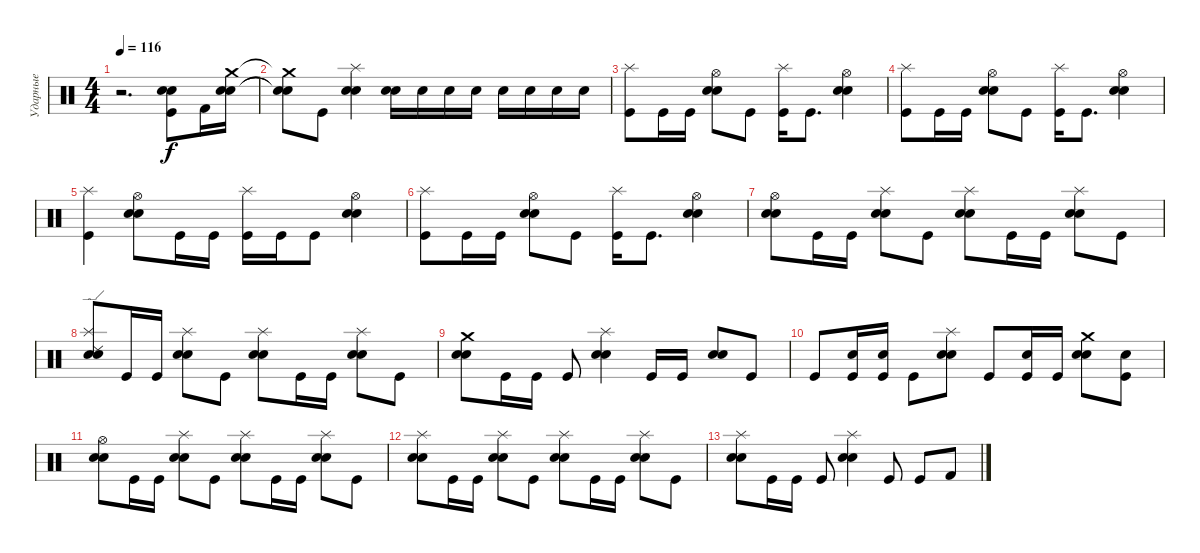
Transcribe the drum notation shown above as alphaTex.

\track ("Ударные" "Ударные") {instrument percussion}
\staff {score}
\articulation defaults
\ts (4 4)
\tempo 116
\clef neutral
\ks c
r.2{d dy mp} ("Electric Snare (hit)" "Snare (hit) 2" "Kick (hit)").8{dy f} "Kick (hit) 2".16 ("Crash medium (hit)" "Electric Snare (hit)" "Snare (hit) 2").16 |
("Crash medium (hit)"{t} "Electric Snare (hit)"{t} "Snare (hit) 2"{t}).8 "Kick (hit)".8 ("Splash (hit)" "Electric Snare (hit)" "Snare (hit) 2").4 ("Electric Snare (hit)" "Snare (hit) 2").16 "Electric Snare (hit)".16 "Electric Snare (hit)".16 "Electric Snare (hit)".16 "Electric Snare (hit)".16 "Electric Snare (hit)".16 "Electric Snare (hit)".16 "Electric Snare (hit)".16 |
("Splash (hit)" "Kick (hit)").8 "Kick (hit)".16 "Kick (hit)".16 ("Hi-Hat (open)" "Electric Snare (hit)" "Snare (hit) 2").8 "Kick (hit)".8 ("Splash (hit)" "Kick (hit)").16 "Kick (hit)".8{d} ("Hi-Hat (open)" "Electric Snare (hit)" "Snare (hit) 2").4 |
("Splash (hit)" "Kick (hit)").8 "Kick (hit)".16 "Kick (hit)".16 ("Hi-Hat (open)" "Electric Snare (hit)" "Snare (hit) 2").8 "Kick (hit)".8 ("Splash (hit)" "Kick (hit)").16 "Kick (hit)".8{d} ("Hi-Hat (open)" "Electric Snare (hit)" "Snare (hit) 2").4 |
("Splash (hit)" "Kick (hit)").4 ("Hi-Hat (open)" "Electric Snare (hit)" "Snare (hit) 2").8 "Kick (hit)".16 "Kick (hit)".16 ("Splash (hit)" "Kick (hit)").16 "Kick (hit)".16 "Kick (hit)".8 ("Hi-Hat (open)" "Electric Snare (hit)" "Snare (hit) 2").4 |
("Splash (hit)" "Kick (hit)").8 "Kick (hit)".16 "Kick (hit)".16 ("Hi-Hat (open)" "Electric Snare (hit)" "Snare (hit) 2").8 "Kick (hit)".8 ("Splash (hit)" "Kick (hit)").16 "Kick (hit)".8{d} ("Hi-Hat (open)" "Electric Snare (hit)" "Snare (hit) 2").4 |
("Hi-Hat (open)" "Electric Snare (hit)" "Snare (hit) 2").8 "Kick (hit)".16 "Kick (hit)".16 ("Splash (hit)" "Electric Snare (hit)" "Snare (hit) 2").8 "Kick (hit)".8 ("Splash (hit)" "Electric Snare (hit)" "Snare (hit) 2").8 "Kick (hit)".16 "Kick (hit)".16 ("Splash (hit)" "Electric Snare (hit)" "Snare (hit) 2").8 "Kick (hit)".8 |
("Splash (hit)" "Electric Snare (hit)" "Snare (hit) 2" "Ride (edge) 2").8 "Kick (hit)".16 "Kick (hit)".16 ("Splash (hit)" "Electric Snare (hit)" "Snare (hit) 2").8 "Kick (hit)".8 ("Splash (hit)" "Electric Snare (hit)" "Snare (hit) 2").8 "Kick (hit)".16 "Kick (hit)".16 ("Splash (hit)" "Electric Snare (hit)" "Snare (hit) 2").8 "Kick (hit)".8 |
("Crash medium (hit)" "Electric Snare (hit)" "Snare (hit) 2").8 "Kick (hit)".16 "Kick (hit)".16 "Kick (hit)".8 ("Splash (hit)" "Electric Snare (hit)" "Snare (hit) 2").4 "Kick (hit)".16 "Kick (hit)".16 ("Electric Snare (hit)" "Snare (hit) 2").8 "Kick (hit)".8 |
"Kick (hit)".8 ("Electric Snare (hit)" "Kick (hit)").16 ("Electric Snare (hit)" "Kick (hit)").16 "Kick (hit)".8 ("Splash (hit)" "Electric Snare (hit)" "Snare (hit) 2").8 "Kick (hit)".8 ("Electric Snare (hit)" "Kick (hit)").16 "Kick (hit)".16 ("Crash medium (hit)" "Electric Snare (hit)" "Snare (hit) 2").8 ("Electric Snare (hit)" "Kick (hit)").8 |
("Hi-Hat (open)" "Electric Snare (hit)" "Snare (hit) 2").8 "Kick (hit)".16 "Kick (hit)".16 ("Splash (hit)" "Electric Snare (hit)" "Snare (hit) 2").8 "Kick (hit)".8 ("Splash (hit)" "Electric Snare (hit)" "Snare (hit) 2").8 "Kick (hit)".16 "Kick (hit)".16 ("Splash (hit)" "Electric Snare (hit)" "Snare (hit) 2").8 "Kick (hit)".8 |
("Splash (hit)" "Electric Snare (hit)" "Snare (hit) 2").8 "Kick (hit)".16 "Kick (hit)".16 ("Splash (hit)" "Electric Snare (hit)" "Snare (hit) 2").8 "Kick (hit)".8 ("Splash (hit)" "Electric Snare (hit)" "Snare (hit) 2").8 "Kick (hit)".16 "Kick (hit)".16 ("Splash (hit)" "Electric Snare (hit)" "Snare (hit) 2").8 "Kick (hit)".8 |
("Splash (hit)" "Electric Snare (hit)" "Snare (hit) 2").8 "Kick (hit)".16 "Kick (hit)".16 "Kick (hit)".8 ("Splash (hit)" "Electric Snare (hit)" "Snare (hit) 2").4 "Kick (hit)".8 "Kick (hit)".8 "Kick (hit) 2".8
